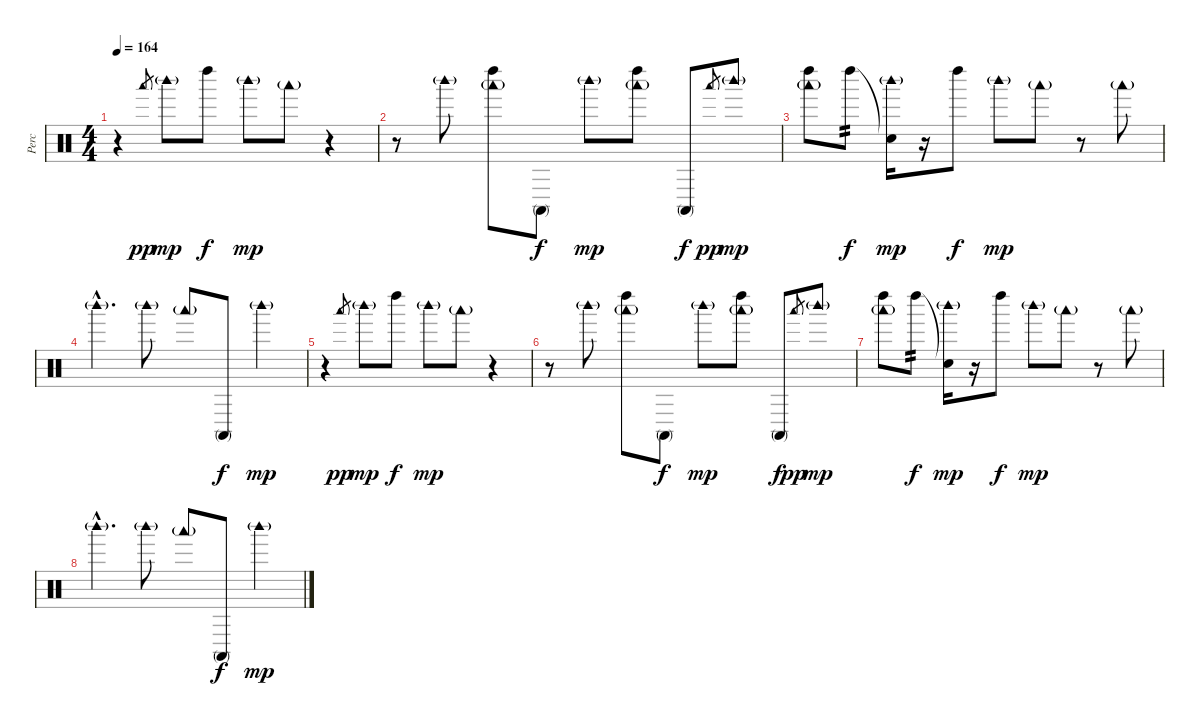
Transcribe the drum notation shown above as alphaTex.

\track ("Perc" "Perc") {instrument percussion}
\staff {score}
\articulation defaults
\ts (4 4)
\tempo 164
\clef neutral
\ks c
r.4{dy mp} "Woodblock low (hit)".8{gr dy pp} "Woodblock high (hit)"{g}.8{dy mp} "Left Maraca (hit)".8{dy f} "Woodblock high (hit)"{g}.8{dy mp} "Woodblock low (hit)"{g}.8 r.4 |
r.8 "Woodblock high (hit)"{g}.8 ("Left Maraca (hit)" "Woodblock low (hit)"{g}).8 "Conga high (mute)".8{dy f} "Woodblock high (hit)"{g}.8{dy mp} ("Left Maraca (hit)" "Woodblock low (hit)"{g}).8 "Conga high (mute)".8{dy f} "Woodblock low (hit)".8{gr dy pp} "Woodblock high (hit)"{g}.8{dy mp} |
("Left Maraca (hit)" "Woodblock low (hit)"{g}).8 "Left Maraca (hit)".8{tp 2 dy f} ("Snare (hit)"{t} "Woodblock high (hit)"{g}).16{dy mp} r.16 "Left Maraca (hit)".8{dy f} "Woodblock high (hit)"{g}.8{dy mp} "Woodblock low (hit)"{g}.8 r.8 "Woodblock low (hit)"{g}.8 |
"Woodblock high (hit)"{g hac}.4{d} "Woodblock high (hit)"{g}.8 "Woodblock low (hit)"{g}.8 "Conga high (mute)".8{dy f} "Woodblock high (hit)"{g}.4{dy mp} |
r.4 "Woodblock low (hit)".8{gr dy pp} "Woodblock high (hit)"{g}.8{dy mp} "Left Maraca (hit)".8{dy f} "Woodblock high (hit)"{g}.8{dy mp} "Woodblock low (hit)"{g}.8 r.4 |
r.8 "Woodblock high (hit)"{g}.8 ("Left Maraca (hit)" "Woodblock low (hit)"{g}).8 "Conga high (mute)".8{dy f} "Woodblock high (hit)"{g}.8{dy mp} ("Left Maraca (hit)" "Woodblock low (hit)"{g}).8 "Conga high (mute)".8{dy f} "Woodblock low (hit)".8{gr dy pp} "Woodblock high (hit)"{g}.8{dy mp} |
("Left Maraca (hit)" "Woodblock low (hit)"{g}).8 "Left Maraca (hit)".8{tp 2 dy f} ("Snare (hit)"{t} "Woodblock high (hit)"{g}).16{dy mp} r.16 "Left Maraca (hit)".8{dy f} "Woodblock high (hit)"{g}.8{dy mp} "Woodblock low (hit)"{g}.8 r.8 "Woodblock low (hit)"{g}.8 |
"Woodblock high (hit)"{g hac}.4{d} "Woodblock high (hit)"{g}.8 "Woodblock low (hit)"{g}.8 "Conga high (mute)".8{dy f} "Woodblock high (hit)"{g}.4{dy mp}
